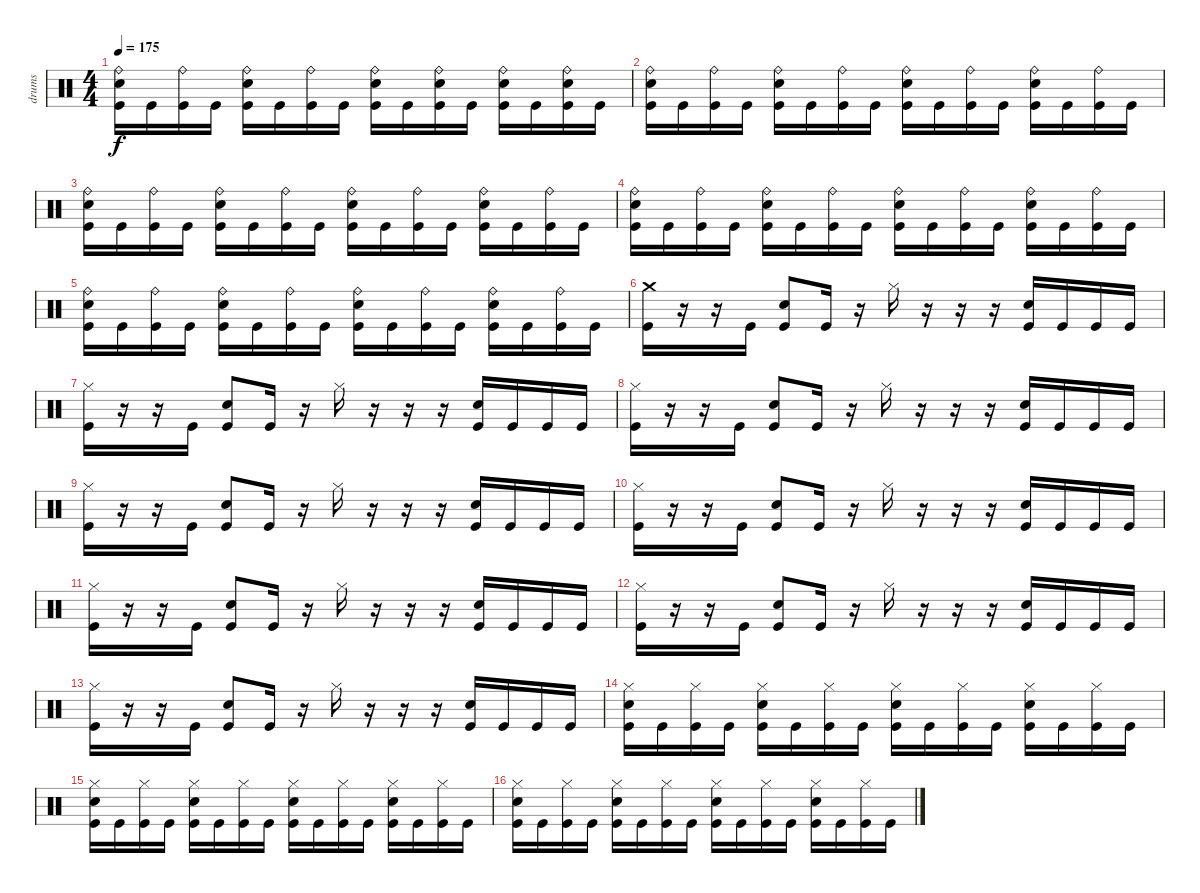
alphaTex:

\track ("drums" "drums") {instrument percussion}
\staff {score}
\articulation defaults
\ts (4 4)
\tempo 175
\clef neutral
\ks c
("Ride (bell)" "Electric Snare (hit)" "Kick (hit)").16{dy f} "Kick (hit)".16 ("Ride (bell)" "Kick (hit)").16 "Kick (hit)".16 ("Ride (bell)" "Electric Snare (hit)" "Kick (hit)").16 "Kick (hit)".16 ("Ride (bell)" "Kick (hit)").16 "Kick (hit)".16 ("Ride (bell)" "Electric Snare (hit)" "Kick (hit)").16 "Kick (hit)".16 ("Ride (bell)" "Electric Snare (hit)" "Kick (hit)").16 "Kick (hit)".16 ("Ride (bell)" "Electric Snare (hit)" "Kick (hit)").16 "Kick (hit)".16 ("Ride (bell)" "Electric Snare (hit)" "Kick (hit)").16 "Kick (hit)".16 |
("Ride (bell)" "Electric Snare (hit)" "Kick (hit)").16 "Kick (hit)".16 ("Ride (bell)" "Kick (hit)").16 "Kick (hit)".16 ("Ride (bell)" "Electric Snare (hit)" "Kick (hit)").16 "Kick (hit)".16 ("Ride (bell)" "Kick (hit)").16 "Kick (hit)".16 ("Ride (bell)" "Electric Snare (hit)" "Kick (hit)").16 "Kick (hit)".16 ("Ride (bell)" "Kick (hit)").16 "Kick (hit)".16 ("Ride (bell)" "Electric Snare (hit)" "Kick (hit)").16 "Kick (hit)".16 ("Ride (bell)" "Kick (hit)").16 "Kick (hit)".16 |
("Ride (bell)" "Electric Snare (hit)" "Kick (hit)").16 "Kick (hit)".16 ("Ride (bell)" "Kick (hit)").16 "Kick (hit)".16 ("Ride (bell)" "Electric Snare (hit)" "Kick (hit)").16 "Kick (hit)".16 ("Ride (bell)" "Kick (hit)").16 "Kick (hit)".16 ("Ride (bell)" "Electric Snare (hit)" "Kick (hit)").16 "Kick (hit)".16 ("Ride (bell)" "Kick (hit)").16 "Kick (hit)".16 ("Ride (bell)" "Electric Snare (hit)" "Kick (hit)").16 "Kick (hit)".16 ("Ride (bell)" "Kick (hit)").16 "Kick (hit)".16 |
("Ride (bell)" "Electric Snare (hit)" "Kick (hit)").16 "Kick (hit)".16 ("Ride (bell)" "Kick (hit)").16 "Kick (hit)".16 ("Ride (bell)" "Electric Snare (hit)" "Kick (hit)").16 "Kick (hit)".16 ("Ride (bell)" "Kick (hit)").16 "Kick (hit)".16 ("Ride (bell)" "Electric Snare (hit)" "Kick (hit)").16 "Kick (hit)".16 ("Ride (bell)" "Kick (hit)").16 "Kick (hit)".16 ("Ride (bell)" "Electric Snare (hit)" "Kick (hit)").16 "Kick (hit)".16 ("Ride (bell)" "Kick (hit)").16 "Kick (hit)".16 |
("Ride (bell)" "Electric Snare (hit)" "Kick (hit)").16 "Kick (hit)".16 ("Ride (bell)" "Kick (hit)").16 "Kick (hit)".16 ("Ride (bell)" "Electric Snare (hit)" "Kick (hit)").16 "Kick (hit)".16 ("Ride (bell)" "Kick (hit)").16 "Kick (hit)".16 ("Ride (bell)" "Electric Snare (hit)" "Kick (hit)").16 "Kick (hit)".16 ("Ride (bell)" "Kick (hit)").16 "Kick (hit)".16 ("Ride (bell)" "Electric Snare (hit)" "Kick (hit)").16 "Kick (hit)".16 ("Ride (bell)" "Kick (hit)").16 "Kick (hit)".16 |
("Crash medium (hit)" "Kick (hit)").16 r.16 r.16 "Kick (hit)".16 ("Electric Snare (hit)" "Kick (hit)").8 "Kick (hit)".16 r.16 "Hi-Hat (closed)".16 r.16 r.16 r.16 ("Electric Snare (hit)" "Kick (hit)").16 "Kick (hit)".16 "Kick (hit)".16 "Kick (hit)".16 |
("Hi-Hat (closed)" "Kick (hit)").16 r.16 r.16 "Kick (hit)".16 ("Electric Snare (hit)" "Kick (hit)").8 "Kick (hit)".16 r.16 "Hi-Hat (closed)".16 r.16 r.16 r.16 ("Electric Snare (hit)" "Kick (hit)").16 "Kick (hit)".16 "Kick (hit)".16 "Kick (hit)".16 |
("Hi-Hat (closed)" "Kick (hit)").16 r.16 r.16 "Kick (hit)".16 ("Electric Snare (hit)" "Kick (hit)").8 "Kick (hit)".16 r.16 "Hi-Hat (closed)".16 r.16 r.16 r.16 ("Electric Snare (hit)" "Kick (hit)").16 "Kick (hit)".16 "Kick (hit)".16 "Kick (hit)".16 |
("Hi-Hat (closed)" "Kick (hit)").16 r.16 r.16 "Kick (hit)".16 ("Electric Snare (hit)" "Kick (hit)").8 "Kick (hit)".16 r.16 "Hi-Hat (closed)".16 r.16 r.16 r.16 ("Electric Snare (hit)" "Kick (hit)").16 "Kick (hit)".16 "Kick (hit)".16 "Kick (hit)".16 |
("Hi-Hat (closed)" "Kick (hit)").16 r.16 r.16 "Kick (hit)".16 ("Electric Snare (hit)" "Kick (hit)").8 "Kick (hit)".16 r.16 "Hi-Hat (closed)".16 r.16 r.16 r.16 ("Electric Snare (hit)" "Kick (hit)").16 "Kick (hit)".16 "Kick (hit)".16 "Kick (hit)".16 |
("Hi-Hat (closed)" "Kick (hit)").16 r.16 r.16 "Kick (hit)".16 ("Electric Snare (hit)" "Kick (hit)").8 "Kick (hit)".16 r.16 "Hi-Hat (closed)".16 r.16 r.16 r.16 ("Electric Snare (hit)" "Kick (hit)").16 "Kick (hit)".16 "Kick (hit)".16 "Kick (hit)".16 |
("Hi-Hat (closed)" "Kick (hit)").16 r.16 r.16 "Kick (hit)".16 ("Electric Snare (hit)" "Kick (hit)").8 "Kick (hit)".16 r.16 "Hi-Hat (closed)".16 r.16 r.16 r.16 ("Electric Snare (hit)" "Kick (hit)").16 "Kick (hit)".16 "Kick (hit)".16 "Kick (hit)".16 |
("Hi-Hat (closed)" "Kick (hit)").16 r.16 r.16 "Kick (hit)".16 ("Electric Snare (hit)" "Kick (hit)").8 "Kick (hit)".16 r.16 "Hi-Hat (closed)".16 r.16 r.16 r.16 ("Electric Snare (hit)" "Kick (hit)").16 "Kick (hit)".16 "Kick (hit)".16 "Kick (hit)".16 |
("Hi-Hat (closed)" "Electric Snare (hit)" "Kick (hit)").16 "Kick (hit)".16 ("Hi-Hat (closed)" "Kick (hit)").16 "Kick (hit)".16 ("Hi-Hat (closed)" "Electric Snare (hit)" "Kick (hit)").16 "Kick (hit)".16 ("Hi-Hat (closed)" "Kick (hit)").16 "Kick (hit)".16 ("Hi-Hat (closed)" "Electric Snare (hit)" "Kick (hit)").16 "Kick (hit)".16 ("Hi-Hat (closed)" "Kick (hit)").16 "Kick (hit)".16 ("Hi-Hat (closed)" "Electric Snare (hit)" "Kick (hit)").16 "Kick (hit)".16 ("Hi-Hat (closed)" "Kick (hit)").16 "Kick (hit)".16 |
("Hi-Hat (closed)" "Electric Snare (hit)" "Kick (hit)").16 "Kick (hit)".16 ("Hi-Hat (closed)" "Kick (hit)").16 "Kick (hit)".16 ("Hi-Hat (closed)" "Electric Snare (hit)" "Kick (hit)").16 "Kick (hit)".16 ("Hi-Hat (closed)" "Kick (hit)").16 "Kick (hit)".16 ("Hi-Hat (closed)" "Electric Snare (hit)" "Kick (hit)").16 "Kick (hit)".16 ("Hi-Hat (closed)" "Kick (hit)").16 "Kick (hit)".16 ("Hi-Hat (closed)" "Electric Snare (hit)" "Kick (hit)").16 "Kick (hit)".16 ("Hi-Hat (closed)" "Kick (hit)").16 "Kick (hit)".16 |
("Hi-Hat (closed)" "Electric Snare (hit)" "Kick (hit)").16 "Kick (hit)".16 ("Hi-Hat (closed)" "Kick (hit)").16 "Kick (hit)".16 ("Hi-Hat (closed)" "Electric Snare (hit)" "Kick (hit)").16 "Kick (hit)".16 ("Hi-Hat (closed)" "Kick (hit)").16 "Kick (hit)".16 ("Hi-Hat (closed)" "Electric Snare (hit)" "Kick (hit)").16 "Kick (hit)".16 ("Hi-Hat (closed)" "Kick (hit)").16 "Kick (hit)".16 ("Hi-Hat (closed)" "Electric Snare (hit)" "Kick (hit)").16 "Kick (hit)".16 ("Hi-Hat (closed)" "Kick (hit)").16 "Kick (hit)".16
